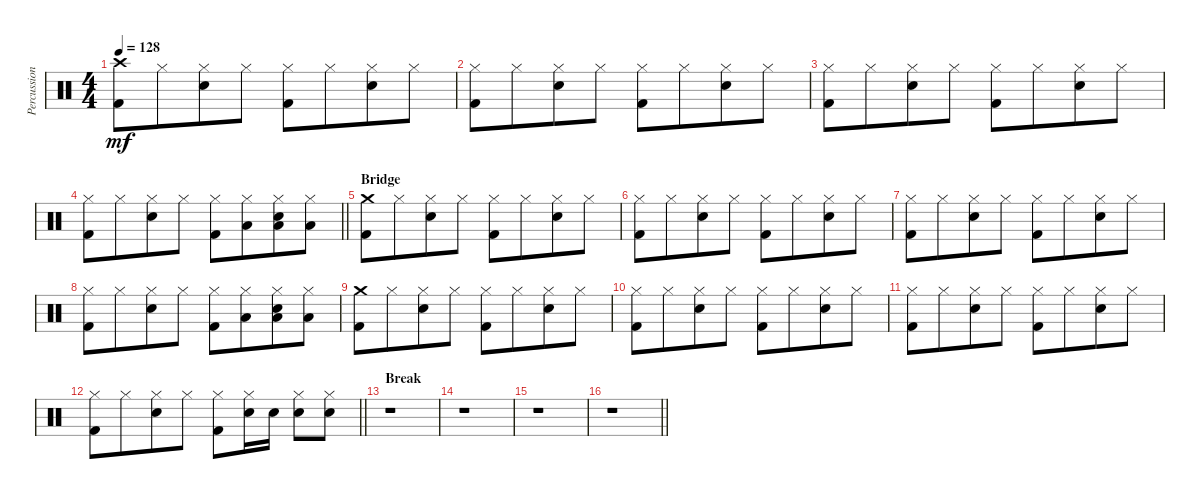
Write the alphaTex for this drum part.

\track ("Percussion" "Percussion") {instrument percussion}
\staff {score}
\articulation defaults
\ts (4 4)
\tempo 128
\clef neutral
\ks c
("Crash high (hit)" "Kick (hit) 2").8{dy mf} "Hi-Hat (closed)".8{beam merge} ("Hi-Hat (closed)" "Snare (hit) 2").8 "Hi-Hat (closed)".8 ("Hi-Hat (closed)" "Kick (hit) 2").8 "Hi-Hat (closed)".8{beam merge} ("Hi-Hat (closed)" "Snare (hit) 2").8 "Hi-Hat (closed)".8 |
("Hi-Hat (closed)" "Kick (hit) 2").8 "Hi-Hat (closed)".8{beam merge} ("Hi-Hat (closed)" "Snare (hit) 2").8 "Hi-Hat (closed)".8 ("Hi-Hat (closed)" "Kick (hit) 2").8 "Hi-Hat (closed)".8{beam merge} ("Hi-Hat (closed)" "Snare (hit) 2").8 "Hi-Hat (closed)".8 |
("Hi-Hat (closed)" "Kick (hit) 2").8 "Hi-Hat (closed)".8{beam merge} ("Hi-Hat (closed)" "Snare (hit) 2").8 "Hi-Hat (closed)".8 ("Hi-Hat (closed)" "Kick (hit) 2").8 "Hi-Hat (closed)".8{beam merge} ("Hi-Hat (closed)" "Snare (hit) 2").8 "Hi-Hat (closed)".8 |
\barLineRight lightlight
("Hi-Hat (closed)" "Kick (hit) 2").8 "Hi-Hat (closed)".8{beam merge} ("Hi-Hat (closed)" "Snare (hit) 2").8 "Hi-Hat (closed)".8 ("Hi-Hat (closed)" "Kick (hit) 2").8 ("Hi-Hat (closed)" "Low Tom (hit)").8{beam merge} ("Hi-Hat (closed)" "Low Tom (hit)" "Snare (hit) 2").8 ("Hi-Hat (closed)" "Low Tom (hit)").8 |
\section ("" "Bridge")
("Crash medium (hit)" "Kick (hit) 2").8 "Hi-Hat (closed)".8{beam merge} ("Hi-Hat (closed)" "Snare (hit) 2").8 "Hi-Hat (closed)".8 ("Hi-Hat (closed)" "Kick (hit) 2").8 "Hi-Hat (closed)".8{beam merge} ("Hi-Hat (closed)" "Snare (hit) 2").8 "Hi-Hat (closed)".8 |
("Hi-Hat (closed)" "Kick (hit) 2").8 "Hi-Hat (closed)".8{beam merge} ("Hi-Hat (closed)" "Snare (hit) 2").8 "Hi-Hat (closed)".8 ("Hi-Hat (closed)" "Kick (hit) 2").8 "Hi-Hat (closed)".8{beam merge} ("Hi-Hat (closed)" "Snare (hit) 2").8 "Hi-Hat (closed)".8 |
("Hi-Hat (closed)" "Kick (hit) 2").8 "Hi-Hat (closed)".8{beam merge} ("Hi-Hat (closed)" "Snare (hit) 2").8 "Hi-Hat (closed)".8 ("Hi-Hat (closed)" "Kick (hit) 2").8 "Hi-Hat (closed)".8{beam merge} ("Hi-Hat (closed)" "Snare (hit) 2").8 "Hi-Hat (closed)".8 |
("Hi-Hat (closed)" "Kick (hit) 2").8 "Hi-Hat (closed)".8{beam merge} ("Hi-Hat (closed)" "Snare (hit) 2").8 "Hi-Hat (closed)".8 ("Hi-Hat (closed)" "Kick (hit) 2").8 ("Hi-Hat (closed)" "Low Tom (hit)").8{beam merge} ("Hi-Hat (closed)" "Low Tom (hit)" "Snare (hit) 2").8 ("Hi-Hat (closed)" "Low Tom (hit)").8 |
("Crash medium (hit)" "Kick (hit) 2").8 "Hi-Hat (closed)".8{beam merge} ("Hi-Hat (closed)" "Snare (hit) 2").8 "Hi-Hat (closed)".8 ("Hi-Hat (closed)" "Kick (hit) 2").8 "Hi-Hat (closed)".8{beam merge} ("Hi-Hat (closed)" "Snare (hit) 2").8 "Hi-Hat (closed)".8 |
("Hi-Hat (closed)" "Kick (hit) 2").8 "Hi-Hat (closed)".8{beam merge} ("Hi-Hat (closed)" "Snare (hit) 2").8 "Hi-Hat (closed)".8 ("Hi-Hat (closed)" "Kick (hit) 2").8 "Hi-Hat (closed)".8{beam merge} ("Hi-Hat (closed)" "Snare (hit) 2").8 "Hi-Hat (closed)".8 |
("Hi-Hat (closed)" "Kick (hit) 2").8 "Hi-Hat (closed)".8{beam merge} ("Hi-Hat (closed)" "Snare (hit) 2").8 "Hi-Hat (closed)".8 ("Hi-Hat (closed)" "Kick (hit) 2").8 "Hi-Hat (closed)".8{beam merge} ("Hi-Hat (closed)" "Snare (hit) 2").8 "Hi-Hat (closed)".8 |
\barLineRight lightlight
("Hi-Hat (closed)" "Kick (hit) 2").8 "Hi-Hat (closed)".8{beam merge} ("Hi-Hat (closed)" "Snare (hit) 2").8 "Hi-Hat (closed)".8 ("Hi-Hat (closed)" "Kick (hit) 2").8 ("Hi-Hat (closed)" "Snare (hit) 2").16{beam merge} "Snare (hit) 2".16 ("Hi-Hat (closed)" "Snare (hit) 2").8 ("Hi-Hat (closed)" "Snare (hit) 2").8 |
\section ("" "Break")
r.1 |
r.1 |
r.1 |
\barLineRight lightlight
r.1
